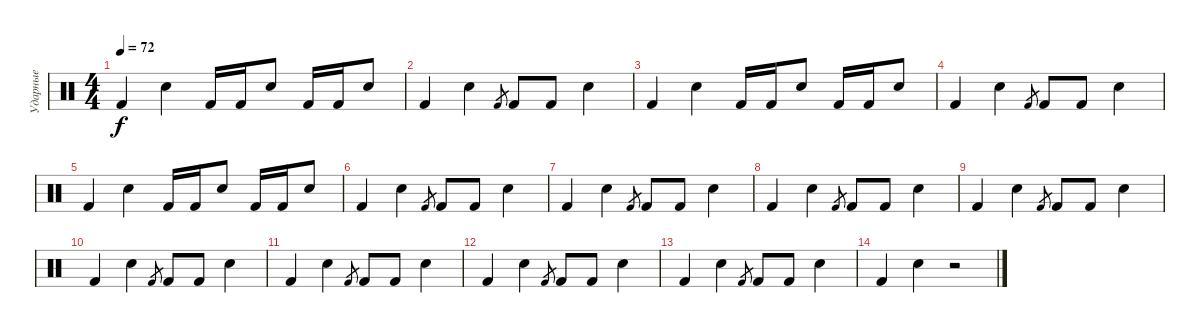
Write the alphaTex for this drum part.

\track ("Ударные" "Ударные") {instrument percussion}
\staff {score}
\articulation defaults
\ts (4 4)
\tempo 72
\clef neutral
\ks c "Kick (hit) 2".4{dy f} "Snare (hit) 2".4 "Kick (hit) 2".16 "Kick (hit) 2".16 "Snare (hit) 2".8 "Kick (hit) 2".16 "Kick (hit) 2".16 "Snare (hit) 2".8
|
"Kick (hit) 2".4 "Snare (hit) 2".4 "Kick (hit) 2".8{gr} "Kick (hit) 2".8 "Kick (hit) 2".8 "Snare (hit) 2".4 |
"Kick (hit) 2".4 "Snare (hit) 2".4 "Kick (hit) 2".16 "Kick (hit) 2".16 "Snare (hit) 2".8 "Kick (hit) 2".16 "Kick (hit) 2".16 "Snare (hit) 2".8 |
"Kick (hit) 2".4 "Snare (hit) 2".4 "Kick (hit) 2".8{gr} "Kick (hit) 2".8 "Kick (hit) 2".8 "Snare (hit) 2".4 |
"Kick (hit) 2".4 "Snare (hit) 2".4 "Kick (hit) 2".16 "Kick (hit) 2".16 "Snare (hit) 2".8 "Kick (hit) 2".16 "Kick (hit) 2".16 "Snare (hit) 2".8 |
"Kick (hit) 2".4 "Snare (hit) 2".4 "Kick (hit) 2".8{gr} "Kick (hit) 2".8 "Kick (hit) 2".8 "Snare (hit) 2".4 |
"Kick (hit) 2".4 "Snare (hit) 2".4 "Kick (hit) 2".8{gr} "Kick (hit) 2".8 "Kick (hit) 2".8 "Snare (hit) 2".4 |
"Kick (hit) 2".4 "Snare (hit) 2".4 "Kick (hit) 2".8{gr} "Kick (hit) 2".8 "Kick (hit) 2".8 "Snare (hit) 2".4 |
"Kick (hit) 2".4 "Snare (hit) 2".4 "Kick (hit) 2".8{gr} "Kick (hit) 2".8 "Kick (hit) 2".8 "Snare (hit) 2".4 |
"Kick (hit) 2".4 "Snare (hit) 2".4 "Kick (hit) 2".8{gr} "Kick (hit) 2".8 "Kick (hit) 2".8 "Snare (hit) 2".4 |
"Kick (hit) 2".4 "Snare (hit) 2".4 "Kick (hit) 2".8{gr} "Kick (hit) 2".8 "Kick (hit) 2".8 "Snare (hit) 2".4 |
"Kick (hit) 2".4 "Snare (hit) 2".4 "Kick (hit) 2".8{gr} "Kick (hit) 2".8 "Kick (hit) 2".8 "Snare (hit) 2".4 |
"Kick (hit) 2".4 "Snare (hit) 2".4 "Kick (hit) 2".8{gr} "Kick (hit) 2".8 "Kick (hit) 2".8 "Snare (hit) 2".4 |
"Kick (hit) 2".4 "Snare (hit) 2".4 r.2
